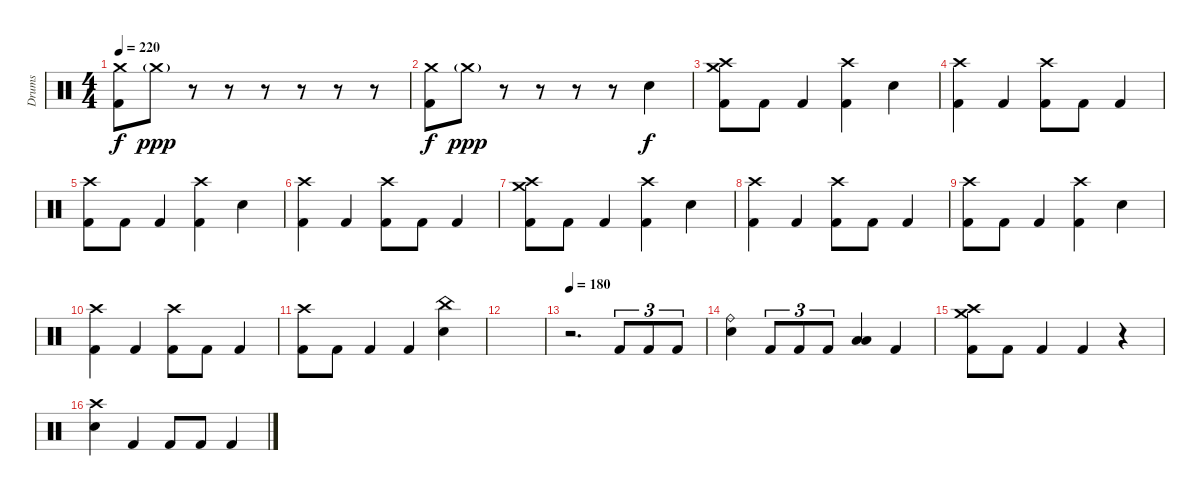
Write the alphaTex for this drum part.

\track ("Drums" "Drums") {instrument percussion}
\staff {score}
\articulation defaults
\ts (4 4)
\tempo 220
\clef neutral
\ks c
("Crash medium (hit)" "Kick (hit) 2").8{dy f} "Crash medium (hit)"{g}.8{dy ppp} r.8 r.8 r.8 r.8 r.8 r.8 |
("Crash medium (hit)" "Kick (hit) 2").8{dy f} "Crash medium (hit)"{g}.8{dy ppp} r.8 r.8 r.8 r.8 "Electric Snare (hit)".4{dy f} |
("Crash high (hit)" "Crash medium (hit)" "Kick (hit) 2").8 "Kick (hit) 2".8 "Kick (hit) 2".4 ("Crash high (hit)" "Kick (hit) 2").4 "Electric Snare (hit)".4 |
("Crash high (hit)" "Kick (hit) 2").4 "Kick (hit) 2".4 ("Crash high (hit)" "Kick (hit) 2").8 "Kick (hit) 2".8 "Kick (hit) 2".4 |
("Crash high (hit)" "Kick (hit) 2").8 "Kick (hit) 2".8 "Kick (hit) 2".4 ("Crash high (hit)" "Kick (hit) 2").4 "Electric Snare (hit)".4 |
("Crash high (hit)" "Kick (hit) 2").4 "Kick (hit) 2".4 ("Crash high (hit)" "Kick (hit) 2").8 "Kick (hit) 2".8 "Kick (hit) 2".4 |
("Crash high (hit)" "Crash medium (hit)" "Kick (hit) 2").8 "Kick (hit) 2".8 "Kick (hit) 2".4 ("Crash high (hit)" "Kick (hit) 2").4 "Electric Snare (hit)".4 |
("Crash high (hit)" "Kick (hit) 2").4 "Kick (hit) 2".4 ("Crash high (hit)" "Kick (hit) 2").8 "Kick (hit) 2".8 "Kick (hit) 2".4 |
("Crash high (hit)" "Kick (hit) 2").8 "Kick (hit) 2".8 "Kick (hit) 2".4 ("Crash high (hit)" "Kick (hit) 2").4 "Electric Snare (hit)".4 |
("Crash high (hit)" "Kick (hit) 2").4 "Kick (hit) 2".4 ("Crash high (hit)" "Kick (hit) 2").8 "Kick (hit) 2".8 "Kick (hit) 2".4 |
("Crash high (hit)" "Kick (hit) 2").8 "Kick (hit) 2".8 "Kick (hit) 2".4 "Kick (hit) 2".4 ("China (hit)" "Electric Snare (hit)").4 |
|
\tempo 180
r.2{d} "Kick (hit) 2".8{tu (3 2)} "Kick (hit) 2".8{tu (3 2)} "Kick (hit) 2".8{tu (3 2)} |
("Ride (bell)" "Electric Snare (hit)").4 "Kick (hit) 2".8{tu (3 2)} "Kick (hit) 2".8{tu (3 2)} "Kick (hit) 2".8{tu (3 2)} ("Low Tom (hit)" "Low Floor Tom (hit)").4 "Kick (hit) 2".4 |
("Crash high (hit)" "Crash medium (hit)" "Kick (hit) 2").8 "Kick (hit) 2".8 "Kick (hit) 2".4 "Kick (hit) 2".4 r.4 |
("Crash high (hit)" "Electric Snare (hit)").4 "Kick (hit) 2".4 "Kick (hit) 2".8 "Kick (hit) 2".8 "Kick (hit) 2".4
